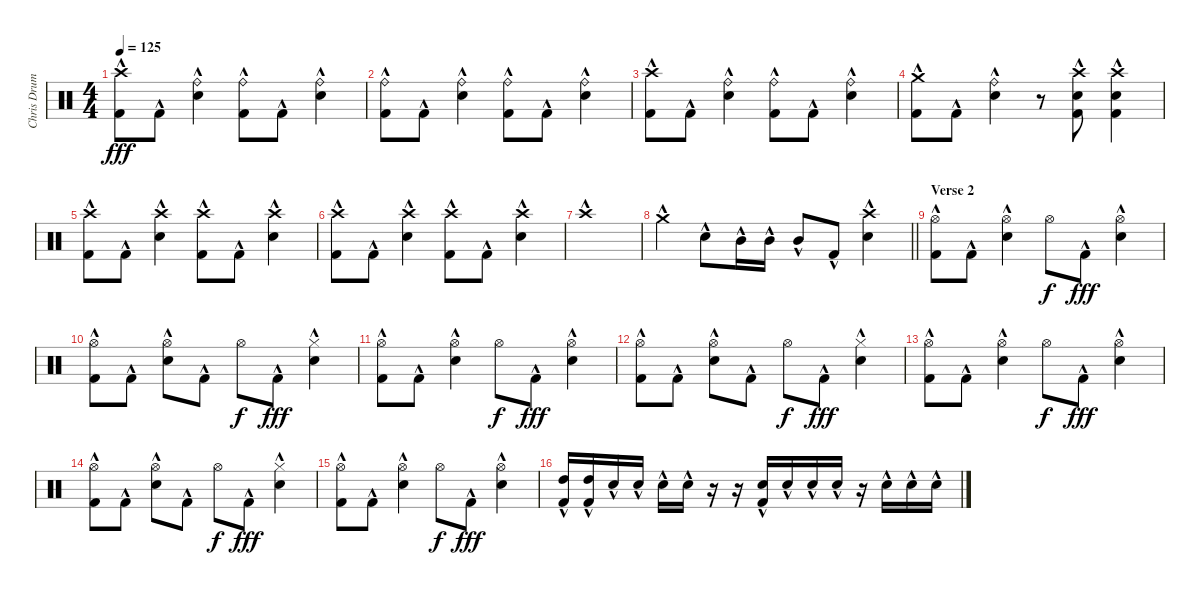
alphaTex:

\track ("Chris Drums" "Chris Drum") {instrument percussion}
\staff {score}
\articulation defaults
\ts (4 4)
\tempo 125
\clef neutral
\ks c
("Crash high (hit)"{hac} "Kick (hit) 2"{hac}).8{dy fff} "Kick (hit) 2"{hac}.8 ("Ride (bell)"{hac} "Snare (hit) 2"{hac}).4 ("Ride (bell)"{hac} "Kick (hit) 2"{hac}).8 "Kick (hit) 2"{hac}.8 ("Ride (bell)"{hac} "Snare (hit) 2"{hac}).4 |
("Ride (bell)"{hac} "Kick (hit) 2"{hac}).8 "Kick (hit) 2"{hac}.8 ("Ride (bell)"{hac} "Snare (hit) 2"{hac}).4 ("Ride (bell)"{hac} "Kick (hit) 2"{hac}).8 "Kick (hit) 2"{hac}.8 ("Ride (bell)"{hac} "Snare (hit) 2"{hac}).4 |
("Crash high (hit)"{hac} "Kick (hit) 2"{hac}).8 "Kick (hit) 2"{hac}.8 ("Ride (bell)"{hac} "Snare (hit) 2"{hac}).4 ("Ride (bell)"{hac} "Kick (hit) 2"{hac}).8 "Kick (hit) 2"{hac}.8 ("Ride (bell)"{hac} "Snare (hit) 2"{hac}).4 |
("Crash medium (hit)"{hac} "Kick (hit) 2"{hac}).8 "Kick (hit) 2"{hac}.8 ("Ride (bell)"{hac} "Snare (hit) 2"{hac}).4 r.8 ("Crash high (hit)" "Snare (hit) 2"{hac} "Kick (hit) 2"{hac}).8 ("Crash high (hit)" "Snare (hit) 2"{hac} "Kick (hit) 2"{hac}).4 |
("Crash high (hit)"{hac} "Kick (hit) 2"{hac}).8 "Kick (hit) 2"{hac}.8 ("Crash high (hit)"{hac} "Snare (hit) 2"{hac}).4 ("Crash high (hit)"{hac} "Kick (hit) 2"{hac}).8 "Kick (hit) 2"{hac}.8 ("Crash high (hit)"{hac} "Snare (hit) 2"{hac}).4 |
("Crash high (hit)"{hac} "Kick (hit) 2"{hac}).8 "Kick (hit) 2"{hac}.8 ("Crash high (hit)"{hac} "Snare (hit) 2"{hac}).4 ("Crash high (hit)"{hac} "Kick (hit) 2"{hac}).8 "Kick (hit) 2"{hac}.8 ("Crash high (hit)"{hac} "Snare (hit) 2"{hac}).4 |
"Crash high (hit)"{hac}.1 |
\barLineRight lightlight "Crash medium (hit)"{hac}.4 "Snare (hit) 2"{hac}.8 "Mid Tom (hit)"{hac}.16 "Mid Tom (hit)"{hac}.16 "Mid Tom (hit)"{hac}.8 "Kick (hit) 2"{hac}.8
("Crash high (hit)"{hac} "Snare (hit) 2"{hac}).4 |
\section ("" "Verse 2")
("Hi-Hat (open)" "Kick (hit) 2"{hac}).8 "Kick (hit) 2"{hac}.8 ("Hi-Hat (open)" "Snare (hit) 2"{hac}).4 "Hi-Hat (open)".8{dy f} "Kick (hit) 2"{hac}.8{dy fff} ("Hi-Hat (open)" "Snare (hit) 2"{hac}).4 |
("Hi-Hat (open)" "Kick (hit) 2"{hac}).8 "Kick (hit) 2"{hac}.8 ("Hi-Hat (open)" "Snare (hit) 2"{hac}).8 "Kick (hit) 2"{hac}.8 "Hi-Hat (open)".8{dy f} "Kick (hit) 2"{hac}.8{dy fff} ("Hi-Hat (closed)" "Snare (hit) 2"{hac}).4 |
("Hi-Hat (open)" "Kick (hit) 2"{hac}).8 "Kick (hit) 2"{hac}.8 ("Hi-Hat (open)" "Snare (hit) 2"{hac}).4 "Hi-Hat (open)".8{dy f} "Kick (hit) 2"{hac}.8{dy fff} ("Hi-Hat (open)" "Snare (hit) 2"{hac}).4 |
("Hi-Hat (open)" "Kick (hit) 2"{hac}).8 "Kick (hit) 2"{hac}.8 ("Hi-Hat (open)" "Snare (hit) 2"{hac}).8 "Kick (hit) 2"{hac}.8 "Hi-Hat (open)".8{dy f} "Kick (hit) 2"{hac}.8{dy fff} ("Hi-Hat (closed)" "Snare (hit) 2"{hac}).4 |
("Hi-Hat (open)" "Kick (hit) 2"{hac}).8 "Kick (hit) 2"{hac}.8 ("Hi-Hat (open)" "Snare (hit) 2"{hac}).4 "Hi-Hat (open)".8{dy f} "Kick (hit) 2"{hac}.8{dy fff} ("Hi-Hat (open)" "Snare (hit) 2"{hac}).4 |
("Hi-Hat (open)" "Kick (hit) 2"{hac}).8 "Kick (hit) 2"{hac}.8 ("Hi-Hat (open)" "Snare (hit) 2"{hac}).8 "Kick (hit) 2"{hac}.8 "Hi-Hat (open)".8{dy f} "Kick (hit) 2"{hac}.8{dy fff} ("Hi-Hat (closed)" "Snare (hit) 2"{hac}).4 |
("Hi-Hat (open)" "Kick (hit) 2"{hac}).8 "Kick (hit) 2"{hac}.8 ("Hi-Hat (open)" "Snare (hit) 2"{hac}).4 "Hi-Hat (open)".8{dy f} "Kick (hit) 2"{hac}.8{dy fff} ("Hi-Hat (open)" "Snare (hit) 2"{hac}).4 |
("High Tom (hit)"{hac} "Kick (hit) 2"{hac}).16 ("High Tom (hit)"{hac} "Kick (hit) 2"{hac}).16 "Snare (hit) 2"{hac}.16 "Snare (hit) 2"{hac}.16 "Snare (hit) 2"{hac}.16 "Snare (hit) 2"{hac}.16 r.16 r.16 ("Snare (hit) 2"{hac} "Kick (hit) 2"{hac}).16 "Snare (hit) 2"{hac}.16 "Snare (hit) 2"{hac}.16 "Snare (hit) 2"{hac}.16 r.16 "Snare (hit) 2"{hac}.16 "Snare (hit) 2"{hac}.16 "Snare (hit) 2"{hac}.16
